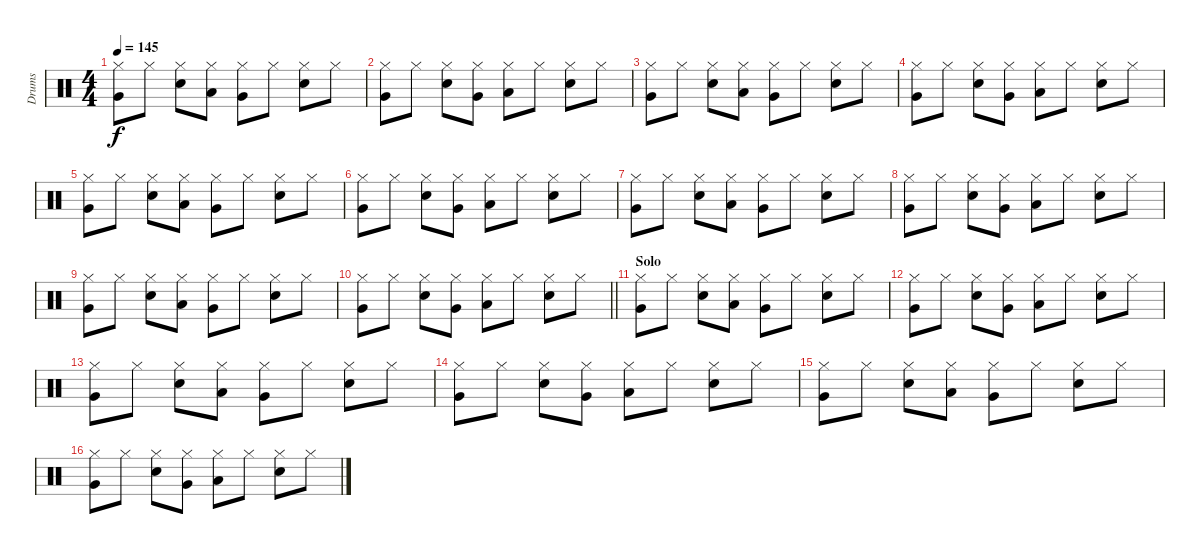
\track ("Drums" "Drums") {instrument percussion}
\staff {score}
\articulation defaults
\ts (4 4)
\tempo 145
\clef neutral
\ks c
("Hi-Hat (closed)" "Very Low Tom (hit)").8{dy f} "Hi-Hat (closed)".8 ("Hi-Hat (closed)" "Snare (hit) 2").8 ("Hi-Hat (closed)" "Low Tom (hit)").8 ("Hi-Hat (closed)" "Very Low Tom (hit)").8 "Hi-Hat (closed)".8 ("Hi-Hat (closed)" "Snare (hit) 2").8 "Hi-Hat (closed)".8 |
("Hi-Hat (closed)" "Very Low Tom (hit)").8 "Hi-Hat (closed)".8 ("Hi-Hat (closed)" "Snare (hit) 2").8 ("Hi-Hat (closed)" "Very Low Tom (hit)").8 ("Hi-Hat (closed)" "Low Tom (hit)").8 "Hi-Hat (closed)".8 ("Hi-Hat (closed)" "Snare (hit) 2").8 "Hi-Hat (closed)".8 |
("Hi-Hat (closed)" "Very Low Tom (hit)").8 "Hi-Hat (closed)".8 ("Hi-Hat (closed)" "Snare (hit) 2").8 ("Hi-Hat (closed)" "Low Tom (hit)").8 ("Hi-Hat (closed)" "Very Low Tom (hit)").8 "Hi-Hat (closed)".8 ("Hi-Hat (closed)" "Snare (hit) 2").8 "Hi-Hat (closed)".8 |
("Hi-Hat (closed)" "Very Low Tom (hit)").8 "Hi-Hat (closed)".8 ("Hi-Hat (closed)" "Snare (hit) 2").8 ("Hi-Hat (closed)" "Very Low Tom (hit)").8 ("Hi-Hat (closed)" "Low Tom (hit)").8 "Hi-Hat (closed)".8 ("Hi-Hat (closed)" "Snare (hit) 2").8 "Hi-Hat (closed)".8 |
("Hi-Hat (closed)" "Very Low Tom (hit)").8 "Hi-Hat (closed)".8 ("Hi-Hat (closed)" "Snare (hit) 2").8 ("Hi-Hat (closed)" "Low Tom (hit)").8 ("Hi-Hat (closed)" "Very Low Tom (hit)").8 "Hi-Hat (closed)".8 ("Hi-Hat (closed)" "Snare (hit) 2").8 "Hi-Hat (closed)".8 |
("Hi-Hat (closed)" "Very Low Tom (hit)").8 "Hi-Hat (closed)".8 ("Hi-Hat (closed)" "Snare (hit) 2").8 ("Hi-Hat (closed)" "Very Low Tom (hit)").8 ("Hi-Hat (closed)" "Low Tom (hit)").8 "Hi-Hat (closed)".8 ("Hi-Hat (closed)" "Snare (hit) 2").8 "Hi-Hat (closed)".8 |
("Hi-Hat (closed)" "Very Low Tom (hit)").8 "Hi-Hat (closed)".8 ("Hi-Hat (closed)" "Snare (hit) 2").8 ("Hi-Hat (closed)" "Low Tom (hit)").8 ("Hi-Hat (closed)" "Very Low Tom (hit)").8 "Hi-Hat (closed)".8 ("Hi-Hat (closed)" "Snare (hit) 2").8 "Hi-Hat (closed)".8 |
("Hi-Hat (closed)" "Very Low Tom (hit)").8 "Hi-Hat (closed)".8 ("Hi-Hat (closed)" "Snare (hit) 2").8 ("Hi-Hat (closed)" "Very Low Tom (hit)").8 ("Hi-Hat (closed)" "Low Tom (hit)").8 "Hi-Hat (closed)".8 ("Hi-Hat (closed)" "Snare (hit) 2").8 "Hi-Hat (closed)".8 |
("Hi-Hat (closed)" "Very Low Tom (hit)").8 "Hi-Hat (closed)".8 ("Hi-Hat (closed)" "Snare (hit) 2").8 ("Hi-Hat (closed)" "Low Tom (hit)").8 ("Hi-Hat (closed)" "Very Low Tom (hit)").8 "Hi-Hat (closed)".8 ("Hi-Hat (closed)" "Snare (hit) 2").8 "Hi-Hat (closed)".8 |
\barLineRight lightlight
("Hi-Hat (closed)" "Very Low Tom (hit)").8 "Hi-Hat (closed)".8 ("Hi-Hat (closed)" "Snare (hit) 2").8 ("Hi-Hat (closed)" "Very Low Tom (hit)").8 ("Hi-Hat (closed)" "Low Tom (hit)").8 "Hi-Hat (closed)".8 ("Hi-Hat (closed)" "Snare (hit) 2").8 "Hi-Hat (closed)".8 |
\section ("" "Solo")
("Hi-Hat (closed)" "Very Low Tom (hit)").8 "Hi-Hat (closed)".8 ("Hi-Hat (closed)" "Snare (hit) 2").8 ("Hi-Hat (closed)" "Low Tom (hit)").8 ("Hi-Hat (closed)" "Very Low Tom (hit)").8 "Hi-Hat (closed)".8 ("Hi-Hat (closed)" "Snare (hit) 2").8 "Hi-Hat (closed)".8 |
("Hi-Hat (closed)" "Very Low Tom (hit)").8 "Hi-Hat (closed)".8 ("Hi-Hat (closed)" "Snare (hit) 2").8 ("Hi-Hat (closed)" "Very Low Tom (hit)").8 ("Hi-Hat (closed)" "Low Tom (hit)").8 "Hi-Hat (closed)".8 ("Hi-Hat (closed)" "Snare (hit) 2").8 "Hi-Hat (closed)".8 |
("Hi-Hat (closed)" "Very Low Tom (hit)").8 "Hi-Hat (closed)".8 ("Hi-Hat (closed)" "Snare (hit) 2").8 ("Hi-Hat (closed)" "Low Tom (hit)").8 ("Hi-Hat (closed)" "Very Low Tom (hit)").8 "Hi-Hat (closed)".8 ("Hi-Hat (closed)" "Snare (hit) 2").8 "Hi-Hat (closed)".8 |
("Hi-Hat (closed)" "Very Low Tom (hit)").8 "Hi-Hat (closed)".8 ("Hi-Hat (closed)" "Snare (hit) 2").8 ("Hi-Hat (closed)" "Very Low Tom (hit)").8 ("Hi-Hat (closed)" "Low Tom (hit)").8 "Hi-Hat (closed)".8 ("Hi-Hat (closed)" "Snare (hit) 2").8 "Hi-Hat (closed)".8 |
("Hi-Hat (closed)" "Very Low Tom (hit)").8 "Hi-Hat (closed)".8 ("Hi-Hat (closed)" "Snare (hit) 2").8 ("Hi-Hat (closed)" "Low Tom (hit)").8 ("Hi-Hat (closed)" "Very Low Tom (hit)").8 "Hi-Hat (closed)".8 ("Hi-Hat (closed)" "Snare (hit) 2").8 "Hi-Hat (closed)".8 |
("Hi-Hat (closed)" "Very Low Tom (hit)").8 "Hi-Hat (closed)".8 ("Hi-Hat (closed)" "Snare (hit) 2").8 ("Hi-Hat (closed)" "Very Low Tom (hit)").8 ("Hi-Hat (closed)" "Low Tom (hit)").8 "Hi-Hat (closed)".8 ("Hi-Hat (closed)" "Snare (hit) 2").8 "Hi-Hat (closed)".8
